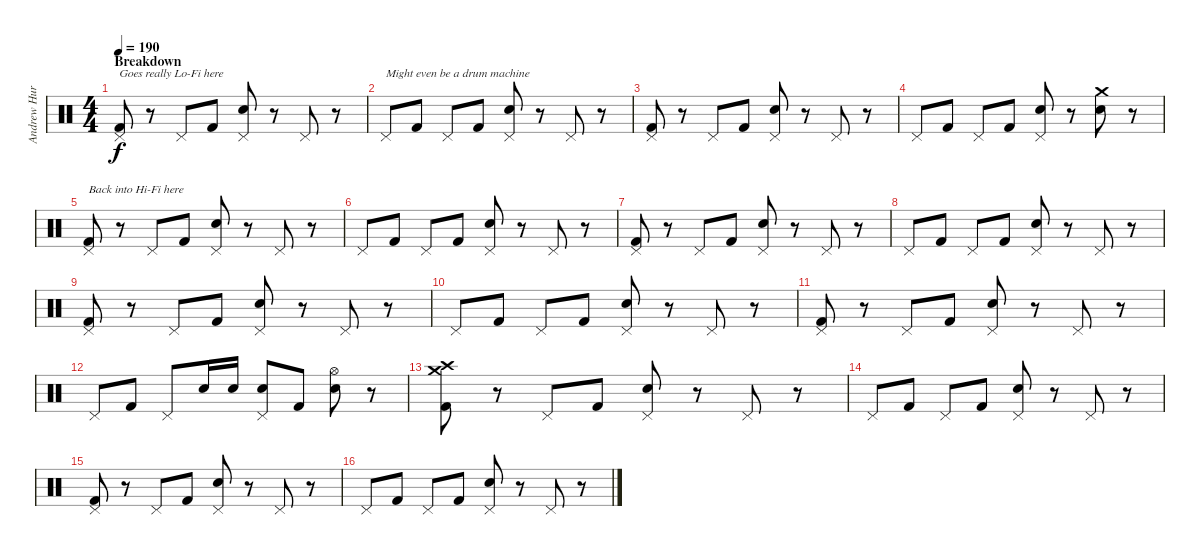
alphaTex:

\track ("Andrew Hurley (Drums)" "Andrew Hur") {instrument percussion}
\staff {score}
\articulation defaults
\ts (4 4)
\section ("" "Breakdown")
\tempo 190
\clef neutral
\ks c
("Pedal Hi-Hat (hit)" "Kick (hit) 2").8{txt "Goes really Lo-Fi here" dy f volume 7} r.8 "Pedal Hi-Hat (hit)".8 "Kick (hit) 2".8 ("Pedal Hi-Hat (hit)" "Electric Snare (hit)").8 r.8 "Pedal Hi-Hat (hit)".8 r.8 |
"Pedal Hi-Hat (hit)".8{txt "Might even be a drum machine" volume 7} "Kick (hit) 2".8 "Pedal Hi-Hat (hit)".8 "Kick (hit) 2".8 ("Pedal Hi-Hat (hit)" "Electric Snare (hit)").8 r.8 "Pedal Hi-Hat (hit)".8 r.8 |
("Pedal Hi-Hat (hit)" "Kick (hit) 2").8{volume 7} r.8 "Pedal Hi-Hat (hit)".8 "Kick (hit) 2".8 ("Pedal Hi-Hat (hit)" "Electric Snare (hit)").8 r.8 "Pedal Hi-Hat (hit)".8 r.8 |
"Pedal Hi-Hat (hit)".8{volume 7} "Kick (hit) 2".8 "Pedal Hi-Hat (hit)".8 "Kick (hit) 2".8 ("Pedal Hi-Hat (hit)" "Electric Snare (hit)").8 r.8 ("Crash medium (hit)" "Electric Snare (hit)").8{volume 11} r.8 |
("Pedal Hi-Hat (hit)" "Kick (hit) 2").8{txt "Back into Hi-Fi here"} r.8 "Pedal Hi-Hat (hit)".8 "Kick (hit) 2".8 ("Pedal Hi-Hat (hit)" "Electric Snare (hit)").8 r.8 "Pedal Hi-Hat (hit)".8 r.8 |
"Pedal Hi-Hat (hit)".8 "Kick (hit) 2".8 "Pedal Hi-Hat (hit)".8 "Kick (hit) 2".8 ("Pedal Hi-Hat (hit)" "Electric Snare (hit)").8 r.8 "Pedal Hi-Hat (hit)".8 r.8 |
("Pedal Hi-Hat (hit)" "Kick (hit) 2").8 r.8 "Pedal Hi-Hat (hit)".8 "Kick (hit) 2".8 ("Pedal Hi-Hat (hit)" "Electric Snare (hit)").8 r.8 "Pedal Hi-Hat (hit)".8 r.8 |
"Pedal Hi-Hat (hit)".8 "Kick (hit) 2".8 "Pedal Hi-Hat (hit)".8 "Kick (hit) 2".8 ("Pedal Hi-Hat (hit)" "Electric Snare (hit)").8 r.8 "Pedal Hi-Hat (hit)".8 r.8 |
("Pedal Hi-Hat (hit)" "Kick (hit) 2").8 r.8 "Pedal Hi-Hat (hit)".8 "Kick (hit) 2".8 ("Pedal Hi-Hat (hit)" "Electric Snare (hit)").8 r.8 "Pedal Hi-Hat (hit)".8 r.8 |
"Pedal Hi-Hat (hit)".8 "Kick (hit) 2".8 "Pedal Hi-Hat (hit)".8 "Kick (hit) 2".8 ("Pedal Hi-Hat (hit)" "Electric Snare (hit)").8 r.8 "Pedal Hi-Hat (hit)".8 r.8 |
("Pedal Hi-Hat (hit)" "Kick (hit) 2").8 r.8 "Pedal Hi-Hat (hit)".8 "Kick (hit) 2".8 ("Pedal Hi-Hat (hit)" "Electric Snare (hit)").8 r.8 "Pedal Hi-Hat (hit)".8 r.8 |
"Pedal Hi-Hat (hit)".8 "Kick (hit) 2".8 "Pedal Hi-Hat (hit)".8 "Electric Snare (hit)".16 "Electric Snare (hit)".16 ("Pedal Hi-Hat (hit)" "Electric Snare (hit)").8 "Kick (hit) 2".8 ("Hi-Hat (open)" "Electric Snare (hit)").8 r.8 |
("Crash medium (hit)" "Crash high (hit)" "Kick (hit) 2").8 r.8 "Pedal Hi-Hat (hit)".8 "Kick (hit) 2".8 ("Pedal Hi-Hat (hit)" "Electric Snare (hit)").8 r.8 "Pedal Hi-Hat (hit)".8 r.8 |
"Pedal Hi-Hat (hit)".8 "Kick (hit) 2".8 "Pedal Hi-Hat (hit)".8 "Kick (hit) 2".8 ("Pedal Hi-Hat (hit)" "Electric Snare (hit)").8 r.8 "Pedal Hi-Hat (hit)".8 r.8 |
("Pedal Hi-Hat (hit)" "Kick (hit) 2").8 r.8 "Pedal Hi-Hat (hit)".8 "Kick (hit) 2".8 ("Pedal Hi-Hat (hit)" "Electric Snare (hit)").8 r.8 "Pedal Hi-Hat (hit)".8 r.8 |
"Pedal Hi-Hat (hit)".8 "Kick (hit) 2".8 "Pedal Hi-Hat (hit)".8 "Kick (hit) 2".8 ("Pedal Hi-Hat (hit)" "Electric Snare (hit)").8 r.8 "Pedal Hi-Hat (hit)".8 r.8
